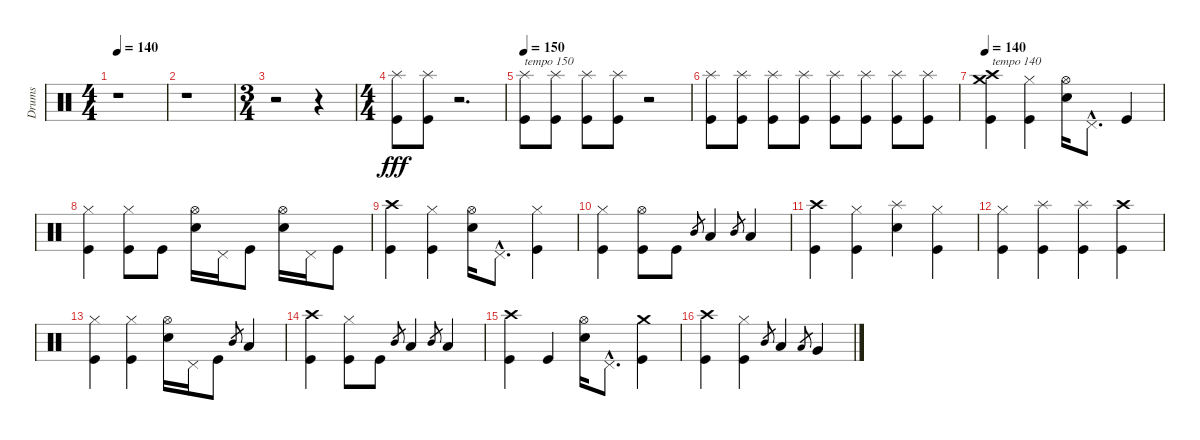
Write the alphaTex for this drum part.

\track ("Drums" "Drums") {instrument percussion}
\staff {score}
\articulation defaults
\ts (4 4)
\tempo 140
\clef neutral
\ks c
r.1{dy fff} |
r.1 |
\ts (3 4)
r.2 r.4 |
\ts (4 4)
("Splash (hit)" "Kick (hit)").8{balance 0} ("Splash (hit)" "Kick (hit)").8{balance 16} r.2{d} |
\tempo 150
("Splash (hit)" "Kick (hit)").8{txt "tempo 150" balance 0} ("Splash (hit)" "Kick (hit)").8{balance 16} ("Splash (hit)" "Kick (hit)").8{balance 0} ("Splash (hit)" "Kick (hit)").8{balance 16} r.2 |
("Splash (hit)" "Kick (hit)").8{balance 0} ("Splash (hit)" "Kick (hit)").8{balance 16} ("Splash (hit)" "Kick (hit)").8{balance 0} ("Splash (hit)" "Kick (hit)").8{balance 16} ("Splash (hit)" "Kick (hit)").8{balance 0} ("Splash (hit)" "Kick (hit)").8{balance 16} ("Splash (hit)" "Kick (hit)").8{balance 0} ("Splash (hit)" "Kick (hit)").8{balance 16} |
\tempo 140
("Crash high (hit)" "Crash medium (hit)" "Kick (hit)").4{txt "tempo 140" balance 8} ("Hi-Hat (closed)" "Kick (hit)").4 ("Hi-Hat (open)" "Electric Snare (hit)").16 "Pedal Hi-Hat (hit)"{hac}.8{d} "Kick (hit)".4 |
("Hi-Hat (closed)" "Kick (hit)").4 ("Hi-Hat (closed)" "Kick (hit)").8 "Kick (hit)".8 ("Hi-Hat (open)" "Electric Snare (hit)").16 "Pedal Hi-Hat (hit)".16 "Kick (hit)".8 ("Hi-Hat (open)" "Electric Snare (hit)").16 "Pedal Hi-Hat (hit)".16 "Kick (hit)".8 |
("Crash high (hit)" "Kick (hit)").4 ("Hi-Hat (closed)" "Kick (hit)").4 ("Hi-Hat (open)" "Electric Snare (hit)").16 "Pedal Hi-Hat (hit)"{hac}.8{d} ("Hi-Hat (closed)" "Kick (hit)").4 |
("Hi-Hat (closed)" "Kick (hit)").4 ("Hi-Hat (open)" "Kick (hit)").8 "Kick (hit)".8 "Mid Tom (hit)".8{gr} "Low Tom (hit)".4 "Mid Tom (hit)".8{gr} "Low Tom (hit)".4 |
("Crash high (hit)" "Kick (hit)").4 ("Hi-Hat (closed)" "Kick (hit)").4 ("Splash (hit)" "Electric Snare (hit)").4 ("Hi-Hat (closed)" "Kick (hit)").4 |
("Hi-Hat (closed)" "Kick (hit)").4 ("Splash (hit)" "Kick (hit)").4 ("Splash (hit)" "Kick (hit)").4 ("Crash high (hit)" "Kick (hit)").4 |
("Hi-Hat (closed)" "Kick (hit)").4 ("Hi-Hat (closed)" "Kick (hit)").4 ("Hi-Hat (open)" "Electric Snare (hit)").16 "Pedal Hi-Hat (hit)".16 "Kick (hit)".8 "Mid Tom (hit)".8{gr} "Low Tom (hit)".4 |
("Crash high (hit)" "Kick (hit)").4 ("Hi-Hat (closed)" "Kick (hit)").8 "Kick (hit)".8 "Mid Tom (hit)".8{gr} "Low Tom (hit)".4 "Mid Tom (hit)".8{gr} "Low Tom (hit)".4 |
("Crash high (hit)" "Kick (hit)").4 "Kick (hit)".4 ("Hi-Hat (open)" "Electric Snare (hit)").16 "Pedal Hi-Hat (hit)"{hac}.8{d} ("Crash medium (hit)" "Kick (hit)").4 |
("Crash high (hit)" "Kick (hit)").4 ("Hi-Hat (closed)" "Kick (hit)").4 "Mid Tom (hit)".8{gr} "Low Tom (hit)".4 "Low Tom (hit)".8{gr} "Very Low Tom (hit)".4
